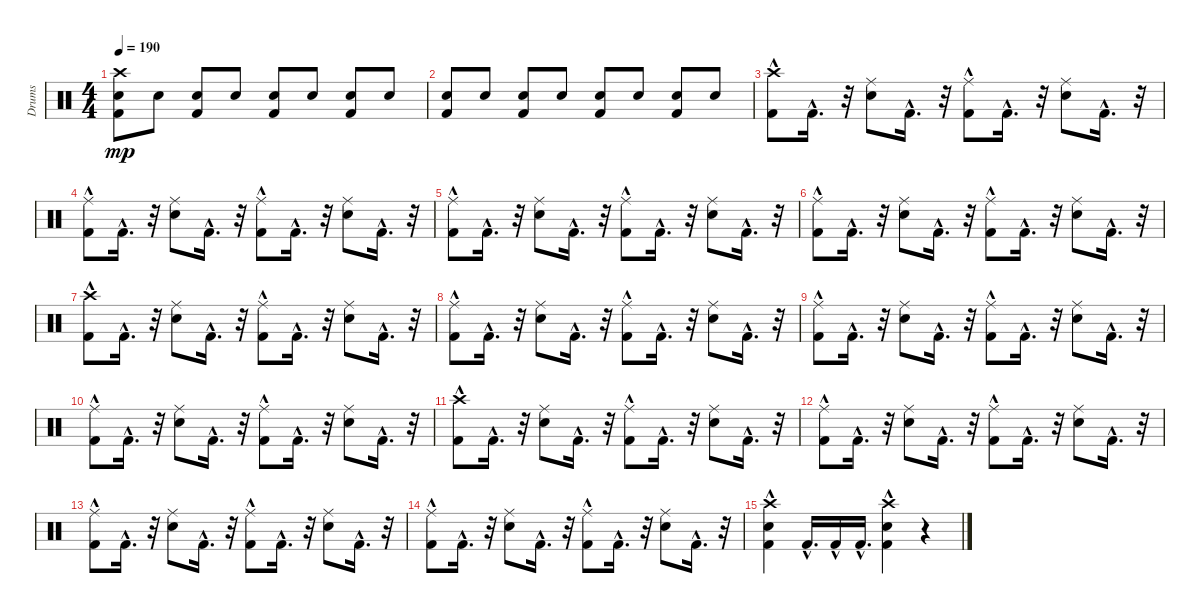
\track ("Drums" "Drums") {instrument percussion}
\staff {score}
\articulation defaults
\ts (4 4)
\tempo 190
\clef neutral
\ks c
("Crash high (hit)" "Snare (hit) 2" "Kick (hit) 2").8{dy mp} "Snare (hit) 2".8 ("Kick (hit) 2" "Snare (hit) 2").8 "Snare (hit) 2".8 ("Kick (hit) 2" "Snare (hit) 2").8 "Snare (hit) 2".8 ("Kick (hit) 2" "Snare (hit) 2").8 "Snare (hit) 2".8 |
("Kick (hit) 2" "Snare (hit) 2").8 "Snare (hit) 2".8 ("Kick (hit) 2" "Snare (hit) 2").8 "Snare (hit) 2".8 ("Kick (hit) 2" "Snare (hit) 2").8 "Snare (hit) 2".8 ("Kick (hit) 2" "Snare (hit) 2").8 "Snare (hit) 2".8 |
("Crash high (hit)" "Kick (hit) 2"{hac}).8 "Kick (hit) 2"{hac}.16{d} r.32 ("Ride (middle)" "Snare (hit) 2").8 "Kick (hit) 2"{hac}.16{d} r.32 ("Ride (middle)" "Kick (hit) 2"{hac}).8 "Kick (hit) 2"{hac}.16{d} r.32 ("Ride (middle)" "Snare (hit) 2").8 "Kick (hit) 2"{hac}.16{d} r.32 |
("Ride (middle)" "Kick (hit) 2"{hac}).8 "Kick (hit) 2"{hac}.16{d} r.32 ("Ride (middle)" "Snare (hit) 2").8 "Kick (hit) 2"{hac}.16{d} r.32 ("Ride (middle)" "Kick (hit) 2"{hac}).8 "Kick (hit) 2"{hac}.16{d} r.32 ("Ride (middle)" "Snare (hit) 2").8 "Kick (hit) 2"{hac}.16{d} r.32 |
("Ride (middle)" "Kick (hit) 2"{hac}).8 "Kick (hit) 2"{hac}.16{d} r.32 ("Ride (middle)" "Snare (hit) 2").8 "Kick (hit) 2"{hac}.16{d} r.32 ("Ride (middle)" "Kick (hit) 2"{hac}).8 "Kick (hit) 2"{hac}.16{d} r.32 ("Ride (middle)" "Snare (hit) 2").8 "Kick (hit) 2"{hac}.16{d} r.32 |
("Ride (middle)" "Kick (hit) 2"{hac}).8 "Kick (hit) 2"{hac}.16{d} r.32 ("Ride (middle)" "Snare (hit) 2").8 "Kick (hit) 2"{hac}.16{d} r.32 ("Ride (middle)" "Kick (hit) 2"{hac}).8 "Kick (hit) 2"{hac}.16{d} r.32 ("Ride (middle)" "Snare (hit) 2").8 "Kick (hit) 2"{hac}.16{d} r.32 |
("Crash high (hit)" "Kick (hit) 2"{hac}).8 "Kick (hit) 2"{hac}.16{d} r.32 ("Ride (middle)" "Snare (hit) 2").8 "Kick (hit) 2"{hac}.16{d} r.32 ("Ride (middle)" "Kick (hit) 2"{hac}).8 "Kick (hit) 2"{hac}.16{d} r.32 ("Ride (middle)" "Snare (hit) 2").8 "Kick (hit) 2"{hac}.16{d} r.32 |
("Ride (middle)" "Kick (hit) 2"{hac}).8 "Kick (hit) 2"{hac}.16{d} r.32 ("Ride (middle)" "Snare (hit) 2").8 "Kick (hit) 2"{hac}.16{d} r.32 ("Ride (middle)" "Kick (hit) 2"{hac}).8 "Kick (hit) 2"{hac}.16{d} r.32 ("Ride (middle)" "Snare (hit) 2").8 "Kick (hit) 2"{hac}.16{d} r.32 |
("Ride (middle)" "Kick (hit) 2"{hac}).8 "Kick (hit) 2"{hac}.16{d} r.32 ("Ride (middle)" "Snare (hit) 2").8 "Kick (hit) 2"{hac}.16{d} r.32 ("Ride (middle)" "Kick (hit) 2"{hac}).8 "Kick (hit) 2"{hac}.16{d} r.32 ("Ride (middle)" "Snare (hit) 2").8 "Kick (hit) 2"{hac}.16{d} r.32 |
("Ride (middle)" "Kick (hit) 2"{hac}).8 "Kick (hit) 2"{hac}.16{d} r.32 ("Ride (middle)" "Snare (hit) 2").8 "Kick (hit) 2"{hac}.16{d} r.32 ("Ride (middle)" "Kick (hit) 2"{hac}).8 "Kick (hit) 2"{hac}.16{d} r.32 ("Ride (middle)" "Snare (hit) 2").8 "Kick (hit) 2"{hac}.16{d} r.32 |
("Crash high (hit)" "Kick (hit) 2"{hac}).8 "Kick (hit) 2"{hac}.16{d} r.32 ("Ride (middle)" "Snare (hit) 2").8 "Kick (hit) 2"{hac}.16{d} r.32 ("Ride (middle)" "Kick (hit) 2"{hac}).8 "Kick (hit) 2"{hac}.16{d} r.32 ("Ride (middle)" "Snare (hit) 2").8 "Kick (hit) 2"{hac}.16{d} r.32 |
("Ride (middle)" "Kick (hit) 2"{hac}).8 "Kick (hit) 2"{hac}.16{d} r.32 ("Ride (middle)" "Snare (hit) 2").8 "Kick (hit) 2"{hac}.16{d} r.32 ("Ride (middle)" "Kick (hit) 2"{hac}).8 "Kick (hit) 2"{hac}.16{d} r.32 ("Ride (middle)" "Snare (hit) 2").8 "Kick (hit) 2"{hac}.16{d} r.32 |
("Ride (middle)" "Kick (hit) 2"{hac}).8 "Kick (hit) 2"{hac}.16{d} r.32 ("Ride (middle)" "Snare (hit) 2").8 "Kick (hit) 2"{hac}.16{d} r.32 ("Ride (middle)" "Kick (hit) 2"{hac}).8 "Kick (hit) 2"{hac}.16{d} r.32 ("Ride (middle)" "Snare (hit) 2").8 "Kick (hit) 2"{hac}.16{d} r.32 |
("Ride (middle)" "Kick (hit) 2"{hac}).8 "Kick (hit) 2"{hac}.16{d} r.32 ("Ride (middle)" "Snare (hit) 2").8 "Kick (hit) 2"{hac}.16{d} r.32 ("Ride (middle)" "Kick (hit) 2"{hac}).8 "Kick (hit) 2"{hac}.16{d} r.32 ("Ride (middle)" "Snare (hit) 2").8 "Kick (hit) 2"{hac}.16{d} r.32 |
("Crash high (hit)" "Snare (hit) 2"{hac} "Kick (hit) 2"{hac}).4 "Kick (hit) 2"{hac}.16{d} "Kick (hit) 2"{hac}.16 "Kick (hit) 2"{hac}.16{d} ("Kick (hit) 2"{hac} "Snare (hit) 2"{hac} "Crash high (hit)").4 r.4
